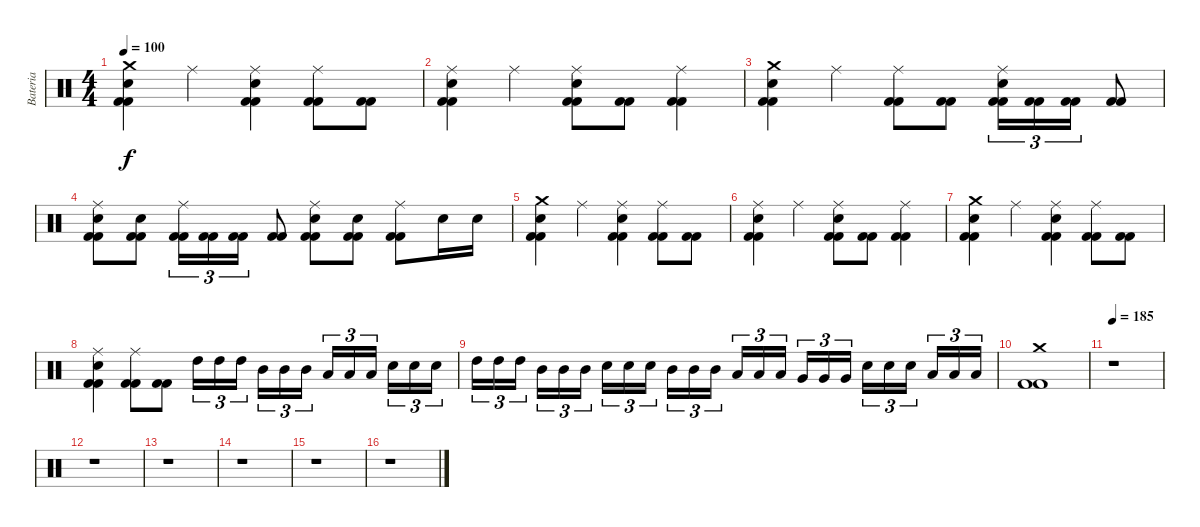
\track ("Bateria" "Bateria") {instrument percussion}
\staff {score}
\articulation defaults
\ts (4 4)
\tempo 100
\clef neutral
\ks c
("Kick (hit) 2" "Kick (hit) 2" "Snare (hit) 2" "Crash medium (hit)").4{dy f} "Ride (middle)".4 ("Kick (hit) 2" "Kick (hit) 2" "Snare (hit) 2" "Ride (middle)").4 ("Kick (hit) 2" "Kick (hit) 2" "Ride (middle)").8 ("Kick (hit) 2" "Kick (hit) 2").8 |
("Kick (hit) 2" "Kick (hit) 2" "Snare (hit) 2" "Ride (middle)").4 "Ride (middle)".4 ("Kick (hit) 2" "Kick (hit) 2" "Snare (hit) 2" "Ride (middle)").8 ("Kick (hit) 2" "Kick (hit) 2").8 ("Kick (hit) 2" "Kick (hit) 2" "Ride (middle)").4 |
("Kick (hit) 2" "Kick (hit) 2" "Snare (hit) 2" "Crash medium (hit)").4 "Ride (middle)".4 ("Kick (hit) 2" "Kick (hit) 2" "Ride (middle)").8 ("Kick (hit) 2" "Kick (hit) 2").8 ("Kick (hit) 2" "Kick (hit) 2" "Snare (hit) 2" "Ride (middle)").16{tu (3 2)} ("Kick (hit) 2" "Kick (hit) 2").16{tu (3 2)} ("Kick (hit) 2" "Kick (hit) 2").16{tu (3 2)} ("Kick (hit) 2" "Kick (hit) 2").8 |
("Kick (hit) 2" "Kick (hit) 2" "Snare (hit) 2" "Ride (middle)").8 ("Kick (hit) 2" "Kick (hit) 2" "Snare (hit) 2").8 ("Kick (hit) 2" "Kick (hit) 2" "Ride (middle)").16{tu (3 2)} ("Kick (hit) 2" "Kick (hit) 2").16{tu (3 2)} ("Kick (hit) 2" "Kick (hit) 2").16{tu (3 2)} ("Kick (hit) 2" "Kick (hit) 2").8 ("Kick (hit) 2" "Kick (hit) 2" "Snare (hit) 2" "Ride (middle)").8 ("Kick (hit) 2" "Kick (hit) 2" "Snare (hit) 2").8 ("Kick (hit) 2" "Kick (hit) 2" "Ride (middle)").8 "Snare (hit) 2".16 "Snare (hit) 2".16 |
("Kick (hit) 2" "Kick (hit) 2" "Snare (hit) 2" "Crash medium (hit)").4 "Ride (middle)".4 ("Kick (hit) 2" "Kick (hit) 2" "Snare (hit) 2" "Ride (middle)").4 ("Kick (hit) 2" "Kick (hit) 2" "Ride (middle)").8 ("Kick (hit) 2" "Kick (hit) 2").8 |
("Kick (hit) 2" "Kick (hit) 2" "Snare (hit) 2" "Ride (middle)").4 "Ride (middle)".4 ("Kick (hit) 2" "Kick (hit) 2" "Snare (hit) 2" "Ride (middle)").8 ("Kick (hit) 2" "Kick (hit) 2").8 ("Kick (hit) 2" "Kick (hit) 2" "Ride (middle)").4 |
("Kick (hit) 2" "Kick (hit) 2" "Snare (hit) 2" "Crash medium (hit)").4 "Ride (middle)".4 ("Kick (hit) 2" "Kick (hit) 2" "Snare (hit) 2" "Ride (middle)").4 ("Kick (hit) 2" "Kick (hit) 2" "Ride (middle)").8 ("Kick (hit) 2" "Kick (hit) 2").8 |
("Kick (hit) 2" "Kick (hit) 2" "Snare (hit) 2" "Ride (middle)").4 ("Kick (hit) 2" "Kick (hit) 2" "Ride (middle)").8 ("Kick (hit) 2" "Kick (hit) 2").8 "High Tom (hit)".16{tu (3 2)} "High Tom (hit)".16{tu (3 2)} "High Tom (hit)".16{tu (3 2)} "Mid Tom (hit)".16{tu (3 2)} "Mid Tom (hit)".16{tu (3 2)} "Mid Tom (hit)".16{tu (3 2)} "Low Tom (hit)".16{tu (3 2)} "Low Tom (hit)".16{tu (3 2)} "Low Tom (hit)".16{tu (3 2)} "Snare (hit) 2".16{tu (3 2)} "Snare (hit) 2".16{tu (3 2)} "Snare (hit) 2".16{tu (3 2)} |
"High Tom (hit)".16{tu (3 2)} "High Tom (hit)".16{tu (3 2)} "High Tom (hit)".16{tu (3 2)} "Mid Tom (hit)".16{tu (3 2)} "Mid Tom (hit)".16{tu (3 2)} "Mid Tom (hit)".16{tu (3 2)} "Snare (hit) 2".16{tu (3 2)} "Snare (hit) 2".16{tu (3 2)} "Snare (hit) 2".16{tu (3 2)} "Mid Tom (hit)".16{tu (3 2)} "Mid Tom (hit)".16{tu (3 2)} "Mid Tom (hit)".16{tu (3 2)} "Low Tom (hit)".16{tu (3 2)} "Low Tom (hit)".16{tu (3 2)} "Low Tom (hit)".16{tu (3 2)} "Very Low Tom (hit)".16{tu (3 2)} "Very Low Tom (hit)".16{tu (3 2)} "Very Low Tom (hit)".16{tu (3 2)} "Snare (hit) 2".16{tu (3 2)} "Snare (hit) 2".16{tu (3 2)} "Snare (hit) 2".16{tu (3 2)} "Low Floor Tom (hit)".16{tu (3 2)} "Low Floor Tom (hit)".16{tu (3 2)} "Low Floor Tom (hit)".16{tu (3 2)} |
("Kick (hit) 2" "Kick (hit) 2" "Crash medium (hit)").1 |
\tempo 185
r.1 |
r.1 |
r.1 |
r.1 |
r.1 |
r.1
